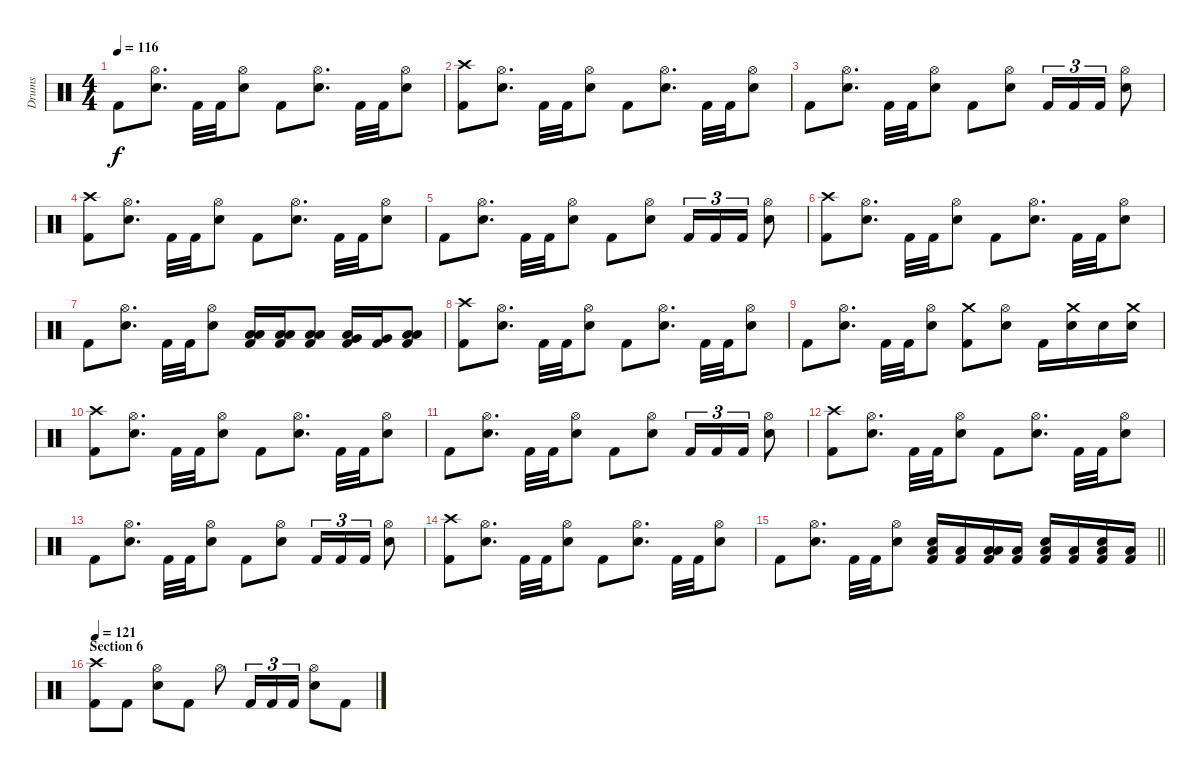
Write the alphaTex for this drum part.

\track ("Drums" "Drums") {instrument percussion}
\staff {score}
\articulation defaults
\ts (4 4)
\tempo 116
\clef neutral
\ks c "Kick (hit) 2".8{dy f}
("Hi-Hat (open)" "Electric Snare (hit)").8{d} "Kick (hit) 2".32 "Kick (hit) 2".32 ("Hi-Hat (open)" "Electric Snare (hit)").8 "Kick (hit) 2".8 ("Hi-Hat (open)" "Electric Snare (hit)").8{d} "Kick (hit) 2".32 "Kick (hit) 2".32 ("Hi-Hat (open)" "Electric Snare (hit)").8 |
("Crash high (hit)" "Kick (hit) 2").8 ("Hi-Hat (open)" "Electric Snare (hit)").8{d} "Kick (hit) 2".32 "Kick (hit) 2".32 ("Hi-Hat (open)" "Electric Snare (hit)").8 "Kick (hit) 2".8 ("Hi-Hat (open)" "Electric Snare (hit)").8{d} "Kick (hit) 2".32 "Kick (hit) 2".32 ("Hi-Hat (open)" "Electric Snare (hit)").8 |
"Kick (hit) 2".8 ("Hi-Hat (open)" "Electric Snare (hit)").8{d} "Kick (hit) 2".32 "Kick (hit) 2".32 ("Hi-Hat (open)" "Electric Snare (hit)").8 "Kick (hit) 2".8 ("Hi-Hat (open)" "Electric Snare (hit)").8 "Kick (hit) 2".16{tu (3 2)} "Kick (hit) 2".16{tu (3 2)} "Kick (hit) 2".16{tu (3 2)} ("Hi-Hat (open)" "Electric Snare (hit)").8 |
("Crash high (hit)" "Kick (hit) 2").8 ("Hi-Hat (open)" "Electric Snare (hit)").8{d} "Kick (hit) 2".32 "Kick (hit) 2".32 ("Hi-Hat (open)" "Electric Snare (hit)").8 "Kick (hit) 2".8 ("Hi-Hat (open)" "Electric Snare (hit)").8{d} "Kick (hit) 2".32 "Kick (hit) 2".32 ("Hi-Hat (open)" "Electric Snare (hit)").8 |
"Kick (hit) 2".8 ("Hi-Hat (open)" "Electric Snare (hit)").8{d} "Kick (hit) 2".32 "Kick (hit) 2".32 ("Hi-Hat (open)" "Electric Snare (hit)").8 "Kick (hit) 2".8 ("Hi-Hat (open)" "Electric Snare (hit)").8 "Kick (hit) 2".16{tu (3 2)} "Kick (hit) 2".16{tu (3 2)} "Kick (hit) 2".16{tu (3 2)} ("Hi-Hat (open)" "Electric Snare (hit)").8 |
("Crash high (hit)" "Kick (hit) 2").8 ("Hi-Hat (open)" "Electric Snare (hit)").8{d} "Kick (hit) 2".32 "Kick (hit) 2".32 ("Hi-Hat (open)" "Electric Snare (hit)").8 "Kick (hit) 2".8 ("Hi-Hat (open)" "Electric Snare (hit)").8{d} "Kick (hit) 2".32 "Kick (hit) 2".32 ("Hi-Hat (open)" "Electric Snare (hit)").8 |
"Kick (hit) 2".8 ("Hi-Hat (open)" "Electric Snare (hit)").8{d} "Kick (hit) 2".32 "Kick (hit) 2".32 ("Hi-Hat (open)" "Electric Snare (hit)").8 ("Low Tom (hit)" "Low Floor Tom (hit)" "Kick (hit) 2").16 ("Low Tom (hit)" "Low Floor Tom (hit)" "Kick (hit) 2").16 ("Low Tom (hit)" "Low Floor Tom (hit)" "Kick (hit) 2").8 ("Very Low Tom (hit)" "Low Floor Tom (hit)" "Kick (hit) 2").16 ("Very Low Tom (hit)" "Kick (hit) 2").16 ("Low Tom (hit)" "Low Floor Tom (hit)" "Kick (hit) 2").8 |
("Crash high (hit)" "Kick (hit) 2").8 ("Hi-Hat (open)" "Electric Snare (hit)").8{d} "Kick (hit) 2".32 "Kick (hit) 2".32 ("Hi-Hat (open)" "Electric Snare (hit)").8 "Kick (hit) 2".8 ("Hi-Hat (open)" "Electric Snare (hit)").8{d} "Kick (hit) 2".32 "Kick (hit) 2".32 ("Hi-Hat (open)" "Electric Snare (hit)").8 |
"Kick (hit) 2".8 ("Hi-Hat (open)" "Electric Snare (hit)").8{d} "Kick (hit) 2".32 "Kick (hit) 2".32 ("Hi-Hat (open)" "Electric Snare (hit)").8 ("Crash medium (hit)" "Kick (hit) 2").8 ("Hi-Hat (open)" "Electric Snare (hit)").8 "Kick (hit) 2".16 ("Crash medium (hit)" "Electric Snare (hit)").16 "Electric Snare (hit)".16 ("Crash medium (hit)" "Electric Snare (hit)").16 |
("Crash high (hit)" "Kick (hit) 2").8 ("Hi-Hat (open)" "Electric Snare (hit)").8{d} "Kick (hit) 2".32 "Kick (hit) 2".32 ("Hi-Hat (open)" "Electric Snare (hit)").8 "Kick (hit) 2".8 ("Hi-Hat (open)" "Electric Snare (hit)").8{d} "Kick (hit) 2".32 "Kick (hit) 2".32 ("Hi-Hat (open)" "Electric Snare (hit)").8 |
"Kick (hit) 2".8 ("Hi-Hat (open)" "Electric Snare (hit)").8{d} "Kick (hit) 2".32 "Kick (hit) 2".32 ("Hi-Hat (open)" "Electric Snare (hit)").8 "Kick (hit) 2".8 ("Hi-Hat (open)" "Electric Snare (hit)").8 "Kick (hit) 2".16{tu (3 2)} "Kick (hit) 2".16{tu (3 2)} "Kick (hit) 2".16{tu (3 2)} ("Hi-Hat (open)" "Electric Snare (hit)").8 |
("Crash high (hit)" "Kick (hit) 2").8 ("Hi-Hat (open)" "Electric Snare (hit)").8{d} "Kick (hit) 2".32 "Kick (hit) 2".32 ("Hi-Hat (open)" "Electric Snare (hit)").8 "Kick (hit) 2".8 ("Hi-Hat (open)" "Electric Snare (hit)").8{d} "Kick (hit) 2".32 "Kick (hit) 2".32 ("Hi-Hat (open)" "Electric Snare (hit)").8 |
"Kick (hit) 2".8 ("Hi-Hat (open)" "Electric Snare (hit)").8{d} "Kick (hit) 2".32 "Kick (hit) 2".32 ("Hi-Hat (open)" "Electric Snare (hit)").8 "Kick (hit) 2".8 ("Hi-Hat (open)" "Electric Snare (hit)").8 "Kick (hit) 2".16{tu (3 2)} "Kick (hit) 2".16{tu (3 2)} "Kick (hit) 2".16{tu (3 2)} ("Hi-Hat (open)" "Electric Snare (hit)").8 |
("Crash high (hit)" "Kick (hit) 2").8 ("Hi-Hat (open)" "Electric Snare (hit)").8{d} "Kick (hit) 2".32 "Kick (hit) 2".32 ("Hi-Hat (open)" "Electric Snare (hit)").8 "Kick (hit) 2".8 ("Hi-Hat (open)" "Electric Snare (hit)").8{d} "Kick (hit) 2".32 "Kick (hit) 2".32 ("Hi-Hat (open)" "Electric Snare (hit)").8 |
\barLineRight lightlight "Kick (hit) 2".8
("Hi-Hat (open)" "Electric Snare (hit)").8{d} "Kick (hit) 2".32 "Kick (hit) 2".32 ("Hi-Hat (open)" "Electric Snare (hit)").8 ("Electric Snare (hit)" "Low Floor Tom (hit)" "Kick (hit) 2").16 ("Low Floor Tom (hit)" "Kick (hit) 2").16 ("Low Tom (hit)" "Low Floor Tom (hit)" "Kick (hit) 2").16 ("Low Floor Tom (hit)" "Kick (hit) 2").16 ("Electric Snare (hit)" "Low Floor Tom (hit)" "Kick (hit) 2").16 ("Low Floor Tom (hit)" "Kick (hit) 2").16 ("Electric Snare (hit)" "Low Floor Tom (hit)" "Kick (hit) 2").16 ("Low Floor Tom (hit)" "Kick (hit) 2").16 |
\section ("" "Section 6")
\tempo 121
("Crash high (hit)" "Kick (hit) 2").8 "Kick (hit) 2".8 ("Hi-Hat (open)" "Electric Snare (hit)").8 "Kick (hit) 2".8 "Hi-Hat (open)".8 "Kick (hit) 2".16{tu (3 2)} "Kick (hit) 2".16{tu (3 2)} "Kick (hit) 2".16{tu (3 2)} ("Hi-Hat (open)" "Electric Snare (hit)").8 "Kick (hit) 2".8
